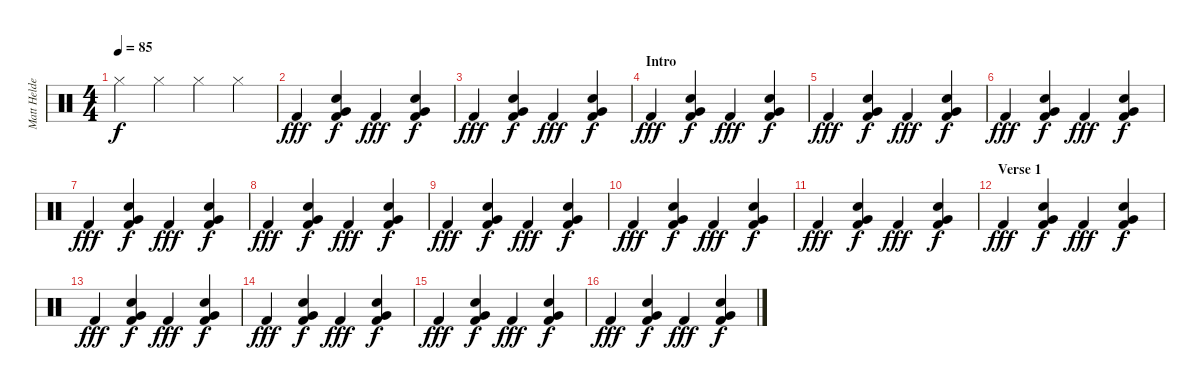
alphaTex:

\track ("Matt Helders - Drums" "Matt Helde") {instrument percussion}
\staff {score}
\articulation defaults
\ts (4 4)
\tempo 85
\clef neutral
\ks c "Hi-Hat (closed)".4{dy f} "Hi-Hat (closed)".4 "Hi-Hat (closed)".4 "Hi-Hat (closed)".4
|
"Kick (hit) 2".4{dy fff} ("Kick (hit) 2" "Very Low Tom (hit)" "Hand Clap (hit)").4{dy f} "Kick (hit) 2".4{dy fff} ("Kick (hit) 2" "Very Low Tom (hit)" "Hand Clap (hit)").4{dy f} |
"Kick (hit) 2".4{dy fff} ("Kick (hit) 2" "Very Low Tom (hit)" "Hand Clap (hit)").4{dy f} "Kick (hit) 2".4{dy fff} ("Kick (hit) 2" "Very Low Tom (hit)" "Hand Clap (hit)").4{dy f} |
\section ("" "Intro")
"Kick (hit) 2".4{dy fff} ("Kick (hit) 2" "Very Low Tom (hit)" "Hand Clap (hit)").4{dy f} "Kick (hit) 2".4{dy fff} ("Kick (hit) 2" "Very Low Tom (hit)" "Hand Clap (hit)").4{dy f} |
"Kick (hit) 2".4{dy fff} ("Kick (hit) 2" "Very Low Tom (hit)" "Hand Clap (hit)").4{dy f} "Kick (hit) 2".4{dy fff} ("Kick (hit) 2" "Very Low Tom (hit)" "Hand Clap (hit)").4{dy f} |
"Kick (hit) 2".4{dy fff} ("Kick (hit) 2" "Very Low Tom (hit)" "Hand Clap (hit)").4{dy f} "Kick (hit) 2".4{dy fff} ("Kick (hit) 2" "Very Low Tom (hit)" "Hand Clap (hit)").4{dy f} |
"Kick (hit) 2".4{dy fff} ("Kick (hit) 2" "Very Low Tom (hit)" "Hand Clap (hit)").4{dy f} "Kick (hit) 2".4{dy fff} ("Kick (hit) 2" "Very Low Tom (hit)" "Hand Clap (hit)").4{dy f} |
"Kick (hit) 2".4{dy fff} ("Kick (hit) 2" "Very Low Tom (hit)" "Hand Clap (hit)").4{dy f} "Kick (hit) 2".4{dy fff} ("Kick (hit) 2" "Very Low Tom (hit)" "Hand Clap (hit)").4{dy f} |
"Kick (hit) 2".4{dy fff} ("Kick (hit) 2" "Very Low Tom (hit)" "Hand Clap (hit)").4{dy f} "Kick (hit) 2".4{dy fff} ("Kick (hit) 2" "Very Low Tom (hit)" "Hand Clap (hit)").4{dy f} |
"Kick (hit) 2".4{dy fff} ("Kick (hit) 2" "Very Low Tom (hit)" "Hand Clap (hit)").4{dy f} "Kick (hit) 2".4{dy fff} ("Kick (hit) 2" "Very Low Tom (hit)" "Hand Clap (hit)").4{dy f} |
"Kick (hit) 2".4{dy fff} ("Kick (hit) 2" "Very Low Tom (hit)" "Hand Clap (hit)").4{dy f} "Kick (hit) 2".4{dy fff} ("Kick (hit) 2" "Very Low Tom (hit)" "Hand Clap (hit)").4{dy f} |
\section ("" "Verse 1")
"Kick (hit) 2".4{dy fff} ("Kick (hit) 2" "Very Low Tom (hit)" "Hand Clap (hit)").4{dy f} "Kick (hit) 2".4{dy fff} ("Kick (hit) 2" "Very Low Tom (hit)" "Hand Clap (hit)").4{dy f} |
"Kick (hit) 2".4{dy fff} ("Kick (hit) 2" "Very Low Tom (hit)" "Hand Clap (hit)").4{dy f} "Kick (hit) 2".4{dy fff} ("Kick (hit) 2" "Very Low Tom (hit)" "Hand Clap (hit)").4{dy f} |
"Kick (hit) 2".4{dy fff} ("Kick (hit) 2" "Very Low Tom (hit)" "Hand Clap (hit)").4{dy f} "Kick (hit) 2".4{dy fff} ("Kick (hit) 2" "Very Low Tom (hit)" "Hand Clap (hit)").4{dy f} |
"Kick (hit) 2".4{dy fff} ("Kick (hit) 2" "Very Low Tom (hit)" "Hand Clap (hit)").4{dy f} "Kick (hit) 2".4{dy fff} ("Kick (hit) 2" "Very Low Tom (hit)" "Hand Clap (hit)").4{dy f} |
"Kick (hit) 2".4{dy fff} ("Kick (hit) 2" "Very Low Tom (hit)" "Hand Clap (hit)").4{dy f} "Kick (hit) 2".4{dy fff} ("Kick (hit) 2" "Very Low Tom (hit)" "Hand Clap (hit)").4{dy f}
